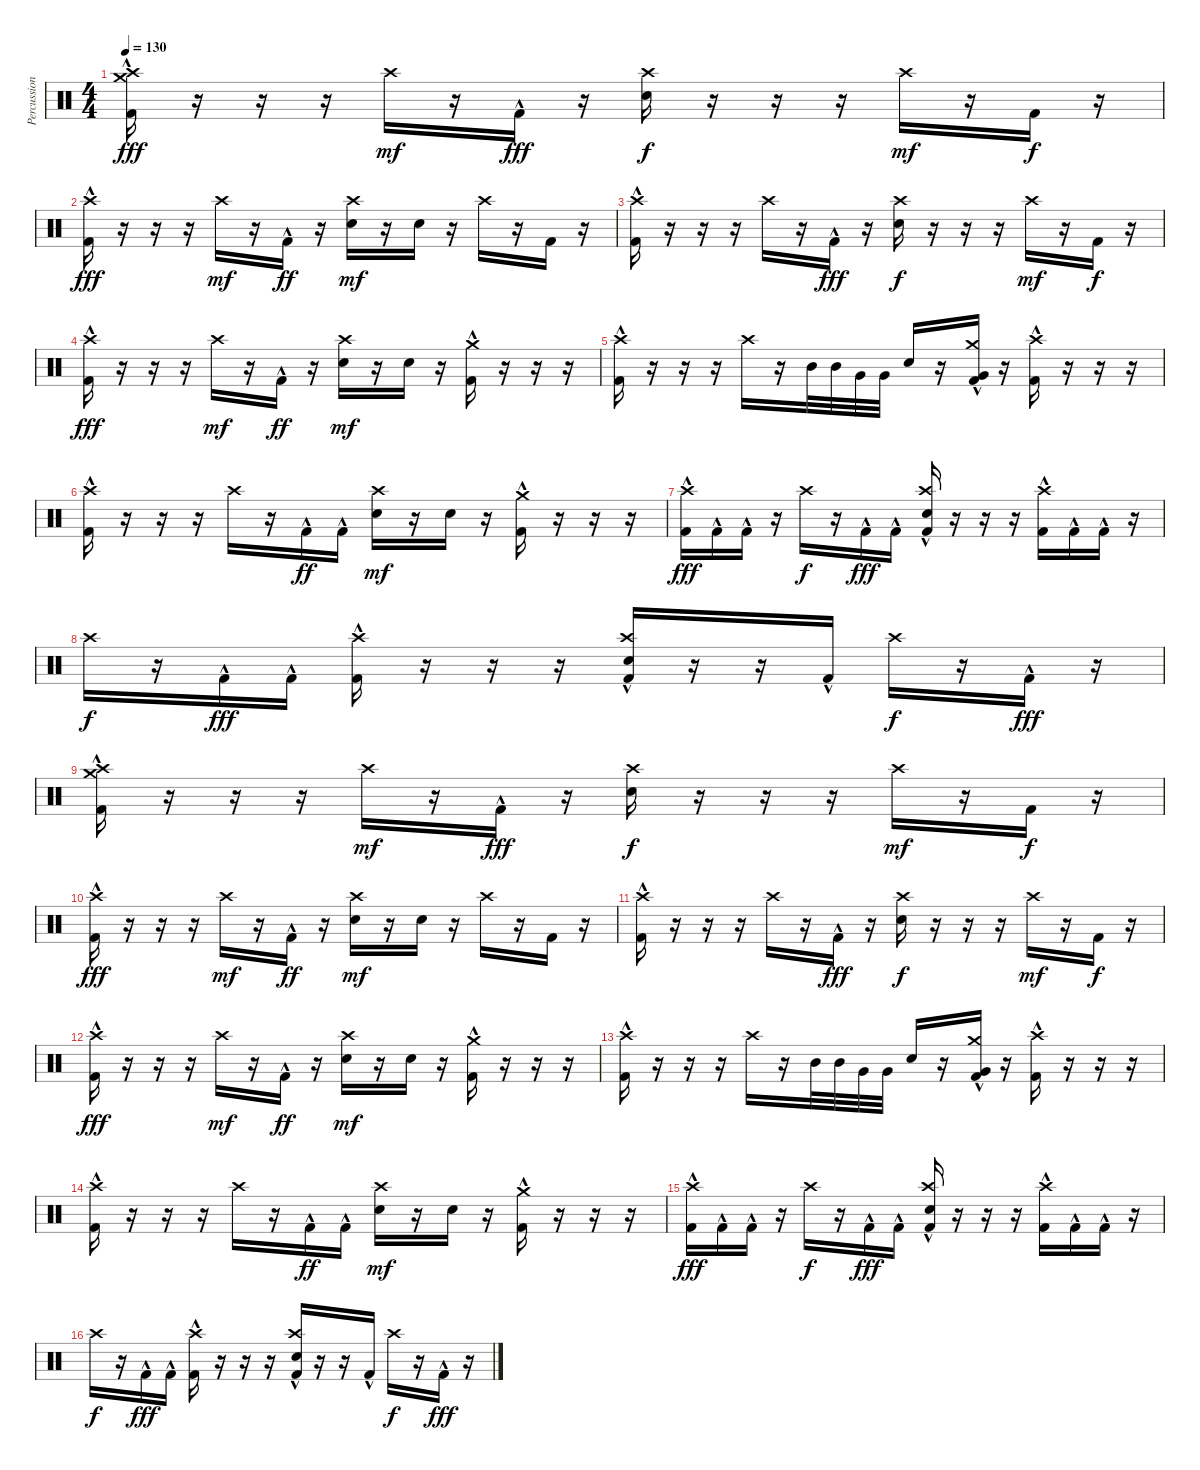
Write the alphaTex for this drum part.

\track ("Percussion" "Percussion") {instrument percussion}
\staff {score}
\articulation defaults
\ts (4 4)
\tempo 130
\clef neutral
\ks c
("Kick (hit) 2"{hac} "Crash medium (hit)" "Crash high (hit)").16{dy fff} r.16 r.16 r.16 "Crash high (hit)".16{dy mf} r.16 "Kick (hit) 2"{hac}.16{dy fff} r.16 ("Electric Snare (hit)" "Crash high (hit)").16{dy f} r.16 r.16 r.16 "Crash high (hit)".16{dy mf} r.16 "Kick (hit) 2".16{dy f} r.16 |
("Kick (hit) 2"{hac} "Crash high (hit)").16{dy fff} r.16 r.16 r.16 "Crash high (hit)".16{dy mf} r.16 "Kick (hit) 2"{hac}.16{dy ff} r.16 ("Electric Snare (hit)" "Crash high (hit)").16{dy mf} r.16 "Electric Snare (hit)".16 r.16 "Crash high (hit)".16 r.16 "Kick (hit) 2".16 r.16 |
("Kick (hit) 2"{hac} "Crash high (hit)").16 r.16 r.16 r.16 "Crash high (hit)".16 r.16 "Kick (hit) 2"{hac}.16{dy fff} r.16 ("Electric Snare (hit)" "Crash high (hit)").16{dy f} r.16 r.16 r.16 "Crash high (hit)".16{dy mf} r.16 "Kick (hit) 2".16{dy f} r.16 |
("Kick (hit) 2"{hac} "Crash high (hit)").16{dy fff} r.16 r.16 r.16 "Crash high (hit)".16{dy mf} r.16 "Kick (hit) 2"{hac}.16{dy ff} r.16 ("Electric Snare (hit)" "Crash high (hit)").16{dy mf} r.16 "Electric Snare (hit)".16 r.16 ("Kick (hit) 2"{hac} "Crash medium (hit)").16 r.16 r.16 r.16 |
("Kick (hit) 2"{hac} "Crash high (hit)").16 r.16 r.16 r.16 "Crash high (hit)".16 r.16 "Mid Tom (hit)".32 "Mid Tom (hit)".32 "Very Low Tom (hit)".32 "Very Low Tom (hit)".32 "Electric Snare (hit)".16 r.16 ("Kick (hit) 2"{hac} "Very Low Tom (hit)" "Crash medium (hit)").16 r.16 ("Kick (hit) 2"{hac} "Crash high (hit)").16 r.16 r.16 r.16 |
("Kick (hit) 2"{hac} "Crash high (hit)").16 r.16 r.16 r.16 "Crash high (hit)".16 r.16 "Kick (hit) 2"{hac}.16{dy ff} "Kick (hit) 2"{hac}.16 ("Electric Snare (hit)" "Crash high (hit)").16{dy mf} r.16 "Electric Snare (hit)".16 r.16 ("Kick (hit) 2"{hac} "Crash medium (hit)").16 r.16 r.16 r.16 |
("Kick (hit) 2"{hac} "Crash high (hit)").16{dy fff} "Kick (hit) 2"{hac}.16 "Kick (hit) 2"{hac}.16 r.16 "Crash high (hit)".16{dy f} r.16 "Kick (hit) 2"{hac}.16{dy fff} "Kick (hit) 2"{hac}.16 ("Kick (hit) 2"{hac} "Electric Snare (hit)" "Crash high (hit)").16 r.16 r.16 r.16 ("Kick (hit) 2"{hac} "Crash high (hit)").16 "Kick (hit) 2"{hac}.16 "Kick (hit) 2"{hac}.16 r.16 |
"Crash high (hit)".16{dy f} r.16 "Kick (hit) 2"{hac}.16{dy fff} "Kick (hit) 2"{hac}.16 ("Kick (hit) 2"{hac} "Crash high (hit)").16 r.16 r.16 r.16 ("Kick (hit) 2"{hac} "Electric Snare (hit)" "Crash high (hit)").16 r.16 r.16 "Kick (hit) 2"{hac}.16 "Crash high (hit)".16{dy f} r.16 "Kick (hit) 2"{hac}.16{dy fff} r.16 |
("Kick (hit) 2"{hac} "Crash medium (hit)" "Crash high (hit)").16 r.16 r.16 r.16 "Crash high (hit)".16{dy mf} r.16 "Kick (hit) 2"{hac}.16{dy fff} r.16 ("Electric Snare (hit)" "Crash high (hit)").16{dy f} r.16 r.16 r.16 "Crash high (hit)".16{dy mf} r.16 "Kick (hit) 2".16{dy f} r.16 |
("Kick (hit) 2"{hac} "Crash high (hit)").16{dy fff} r.16 r.16 r.16 "Crash high (hit)".16{dy mf} r.16 "Kick (hit) 2"{hac}.16{dy ff} r.16 ("Electric Snare (hit)" "Crash high (hit)").16{dy mf} r.16 "Electric Snare (hit)".16 r.16 "Crash high (hit)".16 r.16 "Kick (hit) 2".16 r.16 |
("Kick (hit) 2"{hac} "Crash high (hit)").16 r.16 r.16 r.16 "Crash high (hit)".16 r.16 "Kick (hit) 2"{hac}.16{dy fff} r.16 ("Electric Snare (hit)" "Crash high (hit)").16{dy f} r.16 r.16 r.16 "Crash high (hit)".16{dy mf} r.16 "Kick (hit) 2".16{dy f} r.16 |
("Kick (hit) 2"{hac} "Crash high (hit)").16{dy fff} r.16 r.16 r.16 "Crash high (hit)".16{dy mf} r.16 "Kick (hit) 2"{hac}.16{dy ff} r.16 ("Electric Snare (hit)" "Crash high (hit)").16{dy mf} r.16 "Electric Snare (hit)".16 r.16 ("Kick (hit) 2"{hac} "Crash medium (hit)").16 r.16 r.16 r.16 |
("Kick (hit) 2"{hac} "Crash high (hit)").16 r.16 r.16 r.16 "Crash high (hit)".16 r.16 "Mid Tom (hit)".32 "Mid Tom (hit)".32 "Very Low Tom (hit)".32 "Very Low Tom (hit)".32 "Electric Snare (hit)".16 r.16 ("Kick (hit) 2"{hac} "Very Low Tom (hit)" "Crash medium (hit)").16 r.16 ("Kick (hit) 2"{hac} "Crash high (hit)").16 r.16 r.16 r.16 |
("Kick (hit) 2"{hac} "Crash high (hit)").16 r.16 r.16 r.16 "Crash high (hit)".16 r.16 "Kick (hit) 2"{hac}.16{dy ff} "Kick (hit) 2"{hac}.16 ("Electric Snare (hit)" "Crash high (hit)").16{dy mf} r.16 "Electric Snare (hit)".16 r.16 ("Kick (hit) 2"{hac} "Crash medium (hit)").16 r.16 r.16 r.16 |
("Kick (hit) 2"{hac} "Crash high (hit)").16{dy fff} "Kick (hit) 2"{hac}.16 "Kick (hit) 2"{hac}.16 r.16 "Crash high (hit)".16{dy f} r.16 "Kick (hit) 2"{hac}.16{dy fff} "Kick (hit) 2"{hac}.16 ("Kick (hit) 2"{hac} "Electric Snare (hit)" "Crash high (hit)").16 r.16 r.16 r.16 ("Kick (hit) 2"{hac} "Crash high (hit)").16 "Kick (hit) 2"{hac}.16 "Kick (hit) 2"{hac}.16 r.16 |
"Crash high (hit)".16{dy f} r.16 "Kick (hit) 2"{hac}.16{dy fff} "Kick (hit) 2"{hac}.16 ("Kick (hit) 2"{hac} "Crash high (hit)").16 r.16 r.16 r.16 ("Kick (hit) 2"{hac} "Electric Snare (hit)" "Crash high (hit)").16 r.16 r.16 "Kick (hit) 2"{hac}.16 "Crash high (hit)".16{dy f} r.16 "Kick (hit) 2"{hac}.16{dy fff} r.16
